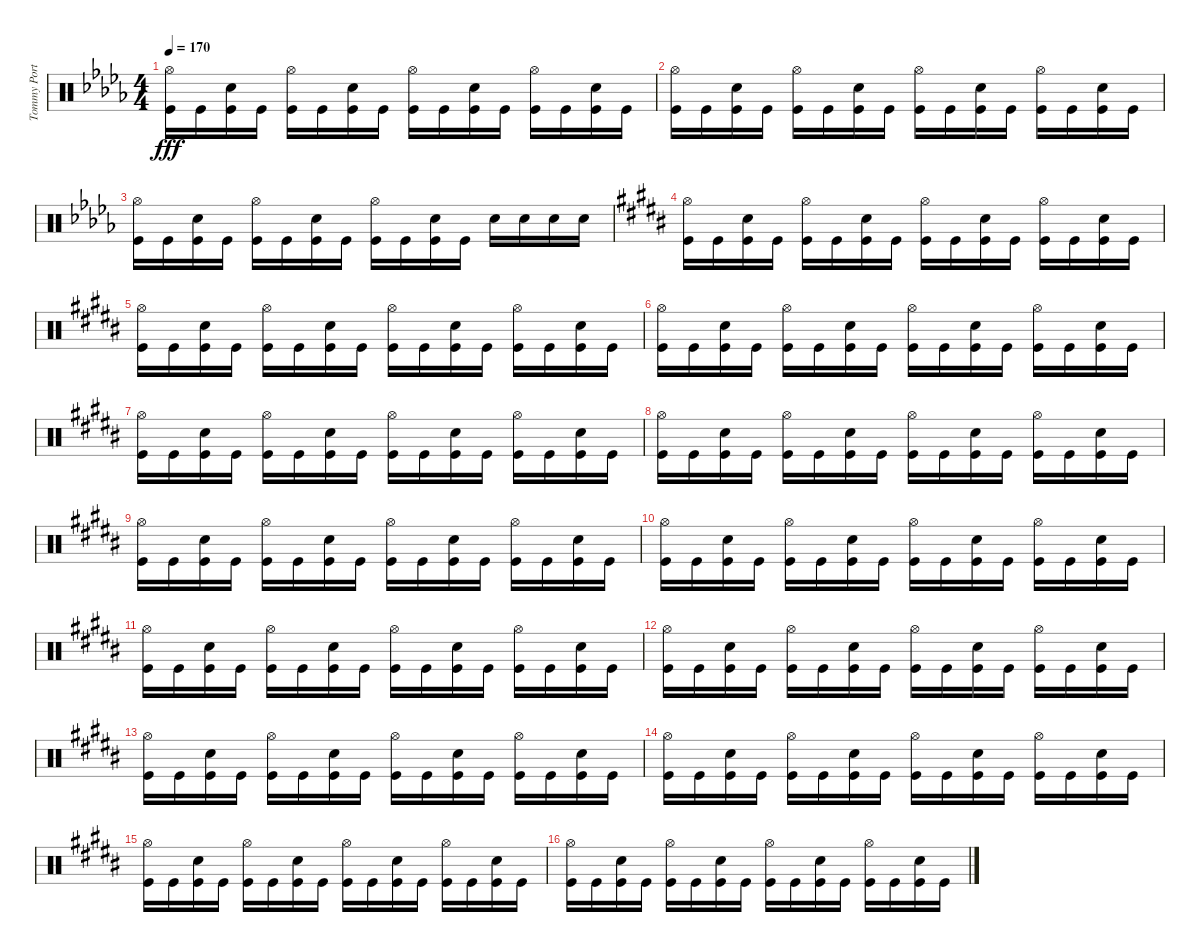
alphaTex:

\track ("Tommy Portimo (Percussion)" "Tommy Port") {instrument percussion}
\staff {score}
\articulation defaults
\ts (4 4)
\tempo 170
\clef neutral
\ks db
("Kick (hit)" "Hi-Hat (open)").16{dy fff} "Kick (hit)".16 ("Kick (hit)" "Electric Snare (hit)").16 "Kick (hit)".16 ("Kick (hit)" "Hi-Hat (open)").16 "Kick (hit)".16 ("Kick (hit)" "Electric Snare (hit)").16 "Kick (hit)".16 ("Kick (hit)" "Hi-Hat (open)").16 "Kick (hit)".16 ("Kick (hit)" "Electric Snare (hit)").16 "Kick (hit)".16 ("Kick (hit)" "Hi-Hat (open)").16 "Kick (hit)".16 ("Kick (hit)" "Electric Snare (hit)").16 "Kick (hit)".16 |
("Kick (hit)" "Hi-Hat (open)").16 "Kick (hit)".16 ("Kick (hit)" "Electric Snare (hit)").16 "Kick (hit)".16 ("Kick (hit)" "Hi-Hat (open)").16 "Kick (hit)".16 ("Kick (hit)" "Electric Snare (hit)").16 "Kick (hit)".16 ("Kick (hit)" "Hi-Hat (open)").16 "Kick (hit)".16 ("Kick (hit)" "Electric Snare (hit)").16 "Kick (hit)".16 ("Kick (hit)" "Hi-Hat (open)").16 "Kick (hit)".16 ("Kick (hit)" "Electric Snare (hit)").16 "Kick (hit)".16 |
("Kick (hit)" "Hi-Hat (open)").16 "Kick (hit)".16 ("Kick (hit)" "Electric Snare (hit)").16 "Kick (hit)".16 ("Kick (hit)" "Hi-Hat (open)").16 "Kick (hit)".16 ("Kick (hit)" "Electric Snare (hit)").16 "Kick (hit)".16 ("Kick (hit)" "Hi-Hat (open)").16 "Kick (hit)".16 ("Kick (hit)" "Electric Snare (hit)").16 "Kick (hit)".16 "Electric Snare (hit)".16 "Electric Snare (hit)".16 "Electric Snare (hit)".16 "Electric Snare (hit)".16 |
\ks b
("Kick (hit)" "Hi-Hat (open)").16 "Kick (hit)".16 ("Kick (hit)" "Electric Snare (hit)").16 "Kick (hit)".16 ("Kick (hit)" "Hi-Hat (open)").16 "Kick (hit)".16 ("Kick (hit)" "Electric Snare (hit)").16 "Kick (hit)".16 ("Kick (hit)" "Hi-Hat (open)").16 "Kick (hit)".16 ("Kick (hit)" "Electric Snare (hit)").16 "Kick (hit)".16 ("Kick (hit)" "Hi-Hat (open)").16 "Kick (hit)".16 ("Kick (hit)" "Electric Snare (hit)").16 "Kick (hit)".16 |
("Kick (hit)" "Hi-Hat (open)").16 "Kick (hit)".16 ("Kick (hit)" "Electric Snare (hit)").16 "Kick (hit)".16 ("Kick (hit)" "Hi-Hat (open)").16 "Kick (hit)".16 ("Kick (hit)" "Electric Snare (hit)").16 "Kick (hit)".16 ("Kick (hit)" "Hi-Hat (open)").16 "Kick (hit)".16 ("Kick (hit)" "Electric Snare (hit)").16 "Kick (hit)".16 ("Kick (hit)" "Hi-Hat (open)").16 "Kick (hit)".16 ("Kick (hit)" "Electric Snare (hit)").16 "Kick (hit)".16 |
("Kick (hit)" "Hi-Hat (open)").16 "Kick (hit)".16 ("Kick (hit)" "Electric Snare (hit)").16 "Kick (hit)".16 ("Kick (hit)" "Hi-Hat (open)").16 "Kick (hit)".16 ("Kick (hit)" "Electric Snare (hit)").16 "Kick (hit)".16 ("Kick (hit)" "Hi-Hat (open)").16 "Kick (hit)".16 ("Kick (hit)" "Electric Snare (hit)").16 "Kick (hit)".16 ("Kick (hit)" "Hi-Hat (open)").16 "Kick (hit)".16 ("Kick (hit)" "Electric Snare (hit)").16 "Kick (hit)".16 |
("Kick (hit)" "Hi-Hat (open)").16 "Kick (hit)".16 ("Kick (hit)" "Electric Snare (hit)").16 "Kick (hit)".16 ("Kick (hit)" "Hi-Hat (open)").16 "Kick (hit)".16 ("Kick (hit)" "Electric Snare (hit)").16 "Kick (hit)".16 ("Kick (hit)" "Hi-Hat (open)").16 "Kick (hit)".16 ("Kick (hit)" "Electric Snare (hit)").16 "Kick (hit)".16 ("Kick (hit)" "Hi-Hat (open)").16 "Kick (hit)".16 ("Kick (hit)" "Electric Snare (hit)").16 "Kick (hit)".16 |
("Kick (hit)" "Hi-Hat (open)").16 "Kick (hit)".16 ("Kick (hit)" "Electric Snare (hit)").16 "Kick (hit)".16 ("Kick (hit)" "Hi-Hat (open)").16 "Kick (hit)".16 ("Kick (hit)" "Electric Snare (hit)").16 "Kick (hit)".16 ("Kick (hit)" "Hi-Hat (open)").16 "Kick (hit)".16 ("Kick (hit)" "Electric Snare (hit)").16 "Kick (hit)".16 ("Kick (hit)" "Hi-Hat (open)").16 "Kick (hit)".16 ("Kick (hit)" "Electric Snare (hit)").16 "Kick (hit)".16 |
("Kick (hit)" "Hi-Hat (open)").16 "Kick (hit)".16 ("Kick (hit)" "Electric Snare (hit)").16 "Kick (hit)".16 ("Kick (hit)" "Hi-Hat (open)").16 "Kick (hit)".16 ("Kick (hit)" "Electric Snare (hit)").16 "Kick (hit)".16 ("Kick (hit)" "Hi-Hat (open)").16 "Kick (hit)".16 ("Kick (hit)" "Electric Snare (hit)").16 "Kick (hit)".16 ("Kick (hit)" "Hi-Hat (open)").16 "Kick (hit)".16 ("Kick (hit)" "Electric Snare (hit)").16 "Kick (hit)".16 |
("Kick (hit)" "Hi-Hat (open)").16 "Kick (hit)".16 ("Kick (hit)" "Electric Snare (hit)").16 "Kick (hit)".16 ("Kick (hit)" "Hi-Hat (open)").16 "Kick (hit)".16 ("Kick (hit)" "Electric Snare (hit)").16 "Kick (hit)".16 ("Kick (hit)" "Hi-Hat (open)").16 "Kick (hit)".16 ("Kick (hit)" "Electric Snare (hit)").16 "Kick (hit)".16 ("Kick (hit)" "Hi-Hat (open)").16 "Kick (hit)".16 ("Kick (hit)" "Electric Snare (hit)").16 "Kick (hit)".16 |
("Kick (hit)" "Hi-Hat (open)").16 "Kick (hit)".16 ("Kick (hit)" "Electric Snare (hit)").16 "Kick (hit)".16 ("Kick (hit)" "Hi-Hat (open)").16 "Kick (hit)".16 ("Kick (hit)" "Electric Snare (hit)").16 "Kick (hit)".16 ("Kick (hit)" "Hi-Hat (open)").16 "Kick (hit)".16 ("Kick (hit)" "Electric Snare (hit)").16 "Kick (hit)".16 ("Kick (hit)" "Hi-Hat (open)").16 "Kick (hit)".16 ("Kick (hit)" "Electric Snare (hit)").16 "Kick (hit)".16 |
("Kick (hit)" "Hi-Hat (open)").16 "Kick (hit)".16 ("Kick (hit)" "Electric Snare (hit)").16 "Kick (hit)".16 ("Kick (hit)" "Hi-Hat (open)").16 "Kick (hit)".16 ("Kick (hit)" "Electric Snare (hit)").16 "Kick (hit)".16 ("Kick (hit)" "Hi-Hat (open)").16 "Kick (hit)".16 ("Kick (hit)" "Electric Snare (hit)").16 "Kick (hit)".16 ("Kick (hit)" "Hi-Hat (open)").16 "Kick (hit)".16 ("Kick (hit)" "Electric Snare (hit)").16 "Kick (hit)".16 |
("Kick (hit)" "Hi-Hat (open)").16 "Kick (hit)".16 ("Kick (hit)" "Electric Snare (hit)").16 "Kick (hit)".16 ("Kick (hit)" "Hi-Hat (open)").16 "Kick (hit)".16 ("Kick (hit)" "Electric Snare (hit)").16 "Kick (hit)".16 ("Kick (hit)" "Hi-Hat (open)").16 "Kick (hit)".16 ("Kick (hit)" "Electric Snare (hit)").16 "Kick (hit)".16 ("Kick (hit)" "Hi-Hat (open)").16 "Kick (hit)".16 ("Kick (hit)" "Electric Snare (hit)").16 "Kick (hit)".16 |
("Kick (hit)" "Hi-Hat (open)").16 "Kick (hit)".16 ("Kick (hit)" "Electric Snare (hit)").16 "Kick (hit)".16 ("Kick (hit)" "Hi-Hat (open)").16 "Kick (hit)".16 ("Kick (hit)" "Electric Snare (hit)").16 "Kick (hit)".16 ("Kick (hit)" "Hi-Hat (open)").16 "Kick (hit)".16 ("Kick (hit)" "Electric Snare (hit)").16 "Kick (hit)".16 ("Kick (hit)" "Hi-Hat (open)").16 "Kick (hit)".16 ("Kick (hit)" "Electric Snare (hit)").16 "Kick (hit)".16 |
("Kick (hit)" "Hi-Hat (open)").16 "Kick (hit)".16 ("Kick (hit)" "Electric Snare (hit)").16 "Kick (hit)".16 ("Kick (hit)" "Hi-Hat (open)").16 "Kick (hit)".16 ("Kick (hit)" "Electric Snare (hit)").16 "Kick (hit)".16 ("Kick (hit)" "Hi-Hat (open)").16 "Kick (hit)".16 ("Kick (hit)" "Electric Snare (hit)").16 "Kick (hit)".16 ("Kick (hit)" "Hi-Hat (open)").16 "Kick (hit)".16 ("Kick (hit)" "Electric Snare (hit)").16 "Kick (hit)".16 |
("Kick (hit)" "Hi-Hat (open)").16 "Kick (hit)".16 ("Kick (hit)" "Electric Snare (hit)").16 "Kick (hit)".16 ("Kick (hit)" "Hi-Hat (open)").16 "Kick (hit)".16 ("Kick (hit)" "Electric Snare (hit)").16 "Kick (hit)".16 ("Kick (hit)" "Hi-Hat (open)").16 "Kick (hit)".16 ("Kick (hit)" "Electric Snare (hit)").16 "Kick (hit)".16 ("Kick (hit)" "Hi-Hat (open)").16 "Kick (hit)".16 ("Kick (hit)" "Electric Snare (hit)").16 "Kick (hit)".16
